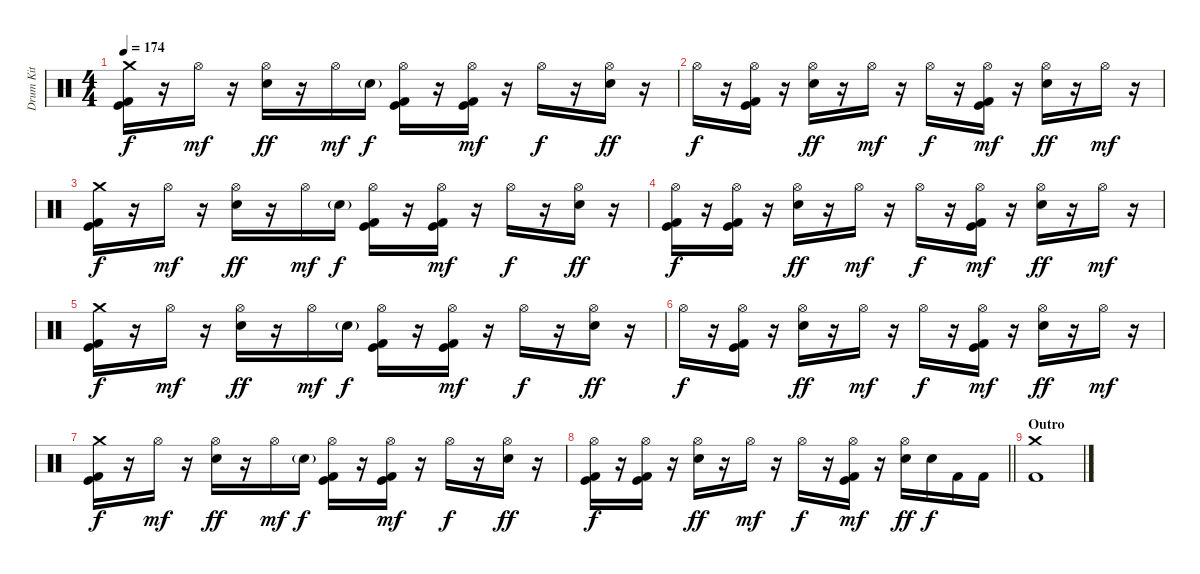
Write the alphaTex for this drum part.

\track ("Drum Kit" "Drum Kit") {instrument percussion}
\staff {score}
\articulation defaults
\ts (4 4)
\tempo 174
\clef neutral
\ks c
("Crash medium (hit)" "Kick (hit)" "Kick (hit) 2").16{dy f} r.16 "Hi-Hat (open)".16{dy mf} r.16 ("Hi-Hat (open)" "Electric Snare (hit)").16{dy ff} r.16 "Hi-Hat (open)".16{dy mf} "Electric Snare (hit)"{g}.16{dy f} ("Hi-Hat (open)" "Kick (hit)" "Kick (hit) 2").16 r.16 ("Hi-Hat (open)" "Kick (hit)" "Kick (hit) 2").16{dy mf} r.16 "Hi-Hat (open)".16{dy f} r.16 ("Hi-Hat (open)" "Electric Snare (hit)").16{dy ff} r.16 |
"Hi-Hat (open)".16{dy f} r.16 ("Hi-Hat (open)" "Kick (hit)" "Kick (hit) 2").16 r.16 ("Hi-Hat (open)" "Electric Snare (hit)").16{dy ff} r.16 "Hi-Hat (open)".16{dy mf} r.16 "Hi-Hat (open)".16{dy f} r.16 ("Hi-Hat (open)" "Kick (hit)" "Kick (hit) 2").16{dy mf} r.16 ("Hi-Hat (open)" "Electric Snare (hit)").16{dy ff} r.16 "Hi-Hat (open)".16{dy mf} r.16 |
("Crash medium (hit)" "Kick (hit)" "Kick (hit) 2").16{dy f} r.16 "Hi-Hat (open)".16{dy mf} r.16 ("Hi-Hat (open)" "Electric Snare (hit)").16{dy ff} r.16 "Hi-Hat (open)".16{dy mf} "Electric Snare (hit)"{g}.16{dy f} ("Hi-Hat (open)" "Kick (hit)" "Kick (hit) 2").16 r.16 ("Hi-Hat (open)" "Kick (hit)" "Kick (hit) 2").16{dy mf} r.16 "Hi-Hat (open)".16{dy f} r.16 ("Hi-Hat (open)" "Electric Snare (hit)").16{dy ff} r.16 |
("Hi-Hat (open)" "Kick (hit)" "Kick (hit) 2").16{dy f} r.16 ("Hi-Hat (open)" "Kick (hit)" "Kick (hit) 2").16 r.16 ("Hi-Hat (open)" "Electric Snare (hit)").16{dy ff} r.16 "Hi-Hat (open)".16{dy mf} r.16 "Hi-Hat (open)".16{dy f} r.16 ("Hi-Hat (open)" "Kick (hit)" "Kick (hit) 2").16{dy mf} r.16 ("Hi-Hat (open)" "Electric Snare (hit)").16{dy ff} r.16 "Hi-Hat (open)".16{dy mf} r.16 |
("Crash medium (hit)" "Kick (hit)" "Kick (hit) 2").16{dy f} r.16 "Hi-Hat (open)".16{dy mf} r.16 ("Hi-Hat (open)" "Electric Snare (hit)").16{dy ff} r.16 "Hi-Hat (open)".16{dy mf} "Electric Snare (hit)"{g}.16{dy f} ("Hi-Hat (open)" "Kick (hit)" "Kick (hit) 2").16 r.16 ("Hi-Hat (open)" "Kick (hit)" "Kick (hit) 2").16{dy mf} r.16 "Hi-Hat (open)".16{dy f} r.16 ("Hi-Hat (open)" "Electric Snare (hit)").16{dy ff} r.16 |
"Hi-Hat (open)".16{dy f} r.16 ("Hi-Hat (open)" "Kick (hit)" "Kick (hit) 2").16 r.16 ("Hi-Hat (open)" "Electric Snare (hit)").16{dy ff} r.16 "Hi-Hat (open)".16{dy mf} r.16 "Hi-Hat (open)".16{dy f} r.16 ("Hi-Hat (open)" "Kick (hit)" "Kick (hit) 2").16{dy mf} r.16 ("Hi-Hat (open)" "Electric Snare (hit)").16{dy ff} r.16 "Hi-Hat (open)".16{dy mf} r.16 |
("Crash medium (hit)" "Kick (hit)" "Kick (hit) 2").16{dy f} r.16 "Hi-Hat (open)".16{dy mf} r.16 ("Hi-Hat (open)" "Electric Snare (hit)").16{dy ff} r.16 "Hi-Hat (open)".16{dy mf} "Electric Snare (hit)"{g}.16{dy f} ("Hi-Hat (open)" "Kick (hit)" "Kick (hit) 2").16 r.16 ("Hi-Hat (open)" "Kick (hit)" "Kick (hit) 2").16{dy mf} r.16 "Hi-Hat (open)".16{dy f} r.16 ("Hi-Hat (open)" "Electric Snare (hit)").16{dy ff} r.16 |
\barLineRight lightlight
("Hi-Hat (open)" "Kick (hit)" "Kick (hit) 2").16{dy f} r.16 ("Hi-Hat (open)" "Kick (hit)" "Kick (hit) 2").16 r.16 ("Hi-Hat (open)" "Electric Snare (hit)").16{dy ff} r.16 "Hi-Hat (open)".16{dy mf} r.16 "Hi-Hat (open)".16{dy f} r.16 ("Hi-Hat (open)" "Kick (hit)" "Kick (hit) 2").16{dy mf} r.16 ("Hi-Hat (open)" "Electric Snare (hit)").16{dy ff} "Electric Snare (hit)".16{dy f} "Kick (hit) 2".16 "Kick (hit) 2".16 |
\section ("" "Outro")
("Crash medium (hit)" "Kick (hit) 2").1
